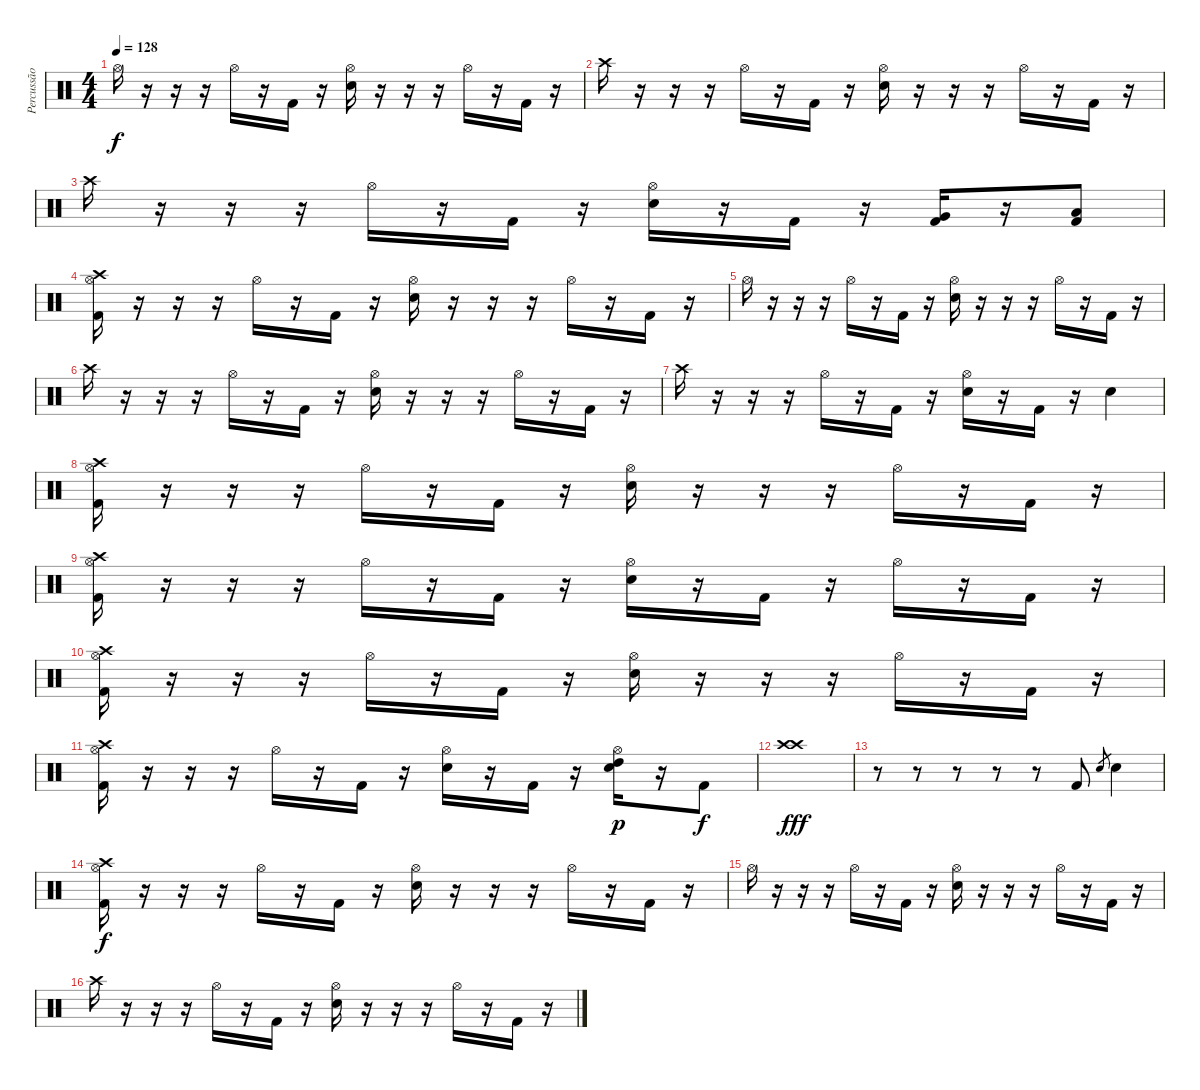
\track ("Percussão" "Percussão") {instrument percussion}
\staff {score}
\articulation defaults
\ts (4 4)
\tempo 128
\clef neutral
\ks c "Hi-Hat (open)".16{dy f}
r.16 r.16 r.16 "Hi-Hat (open)".16 r.16 "Kick (hit) 2".16 r.16 ("Hi-Hat (open)" "Electric Snare (hit)").16 r.16 r.16 r.16 "Hi-Hat (open)".16 r.16 "Kick (hit) 2".16 r.16 |
"Crash high (hit)".16 r.16 r.16 r.16 "Hi-Hat (open)".16 r.16 "Kick (hit) 2".16 r.16 ("Hi-Hat (open)" "Electric Snare (hit)").16 r.16 r.16 r.16 "Hi-Hat (open)".16 r.16 "Kick (hit) 2".16 r.16 |
"Crash high (hit)".16 r.16 r.16 r.16 "Hi-Hat (open)".16 r.16 "Kick (hit) 2".16 r.16 ("Hi-Hat (open)" "Electric Snare (hit)").16 r.16 "Kick (hit) 2".16 r.16 ("Very Low Tom (hit)" "Kick (hit) 2").16 r.16 ("Low Floor Tom (hit)" "Kick (hit) 2").8 |
("Crash high (hit)" "Hi-Hat (open)" "Kick (hit) 2").16 r.16 r.16 r.16 "Hi-Hat (open)".16 r.16 "Kick (hit) 2".16 r.16 ("Hi-Hat (open)" "Electric Snare (hit)").16 r.16 r.16 r.16 "Hi-Hat (open)".16 r.16 "Kick (hit) 2".16 r.16 |
"Hi-Hat (open)".16 r.16 r.16 r.16 "Hi-Hat (open)".16 r.16 "Kick (hit) 2".16 r.16 ("Hi-Hat (open)" "Electric Snare (hit)").16 r.16 r.16 r.16 "Hi-Hat (open)".16 r.16 "Kick (hit) 2".16 r.16 |
"Crash high (hit)".16 r.16 r.16 r.16 "Hi-Hat (open)".16 r.16 "Kick (hit) 2".16 r.16 ("Hi-Hat (open)" "Electric Snare (hit)").16 r.16 r.16 r.16 "Hi-Hat (open)".16 r.16 "Kick (hit) 2".16 r.16 |
"Crash high (hit)".16 r.16 r.16 r.16 "Hi-Hat (open)".16 r.16 "Kick (hit) 2".16 r.16 ("Hi-Hat (open)" "Electric Snare (hit)").16 r.16 "Kick (hit) 2".16 r.16 "Electric Snare (hit)".4 |
("Crash high (hit)" "Hi-Hat (open)" "Kick (hit) 2").16 r.16 r.16 r.16 "Hi-Hat (open)".16 r.16 "Kick (hit) 2".16 r.16 ("Hi-Hat (open)" "Electric Snare (hit)").16 r.16 r.16 r.16 "Hi-Hat (open)".16 r.16 "Kick (hit) 2".16 r.16 |
("Crash high (hit)" "Hi-Hat (open)" "Kick (hit) 2").16 r.16 r.16 r.16 "Hi-Hat (open)".16 r.16 "Kick (hit) 2".16 r.16 ("Hi-Hat (open)" "Electric Snare (hit)").16 r.16 "Kick (hit) 2".16 r.16 "Hi-Hat (open)".16 r.16 "Kick (hit) 2".16 r.16 |
("Crash high (hit)" "Hi-Hat (open)" "Kick (hit) 2").16 r.16 r.16 r.16 "Hi-Hat (open)".16 r.16 "Kick (hit) 2".16 r.16 ("Hi-Hat (open)" "Electric Snare (hit)").16 r.16 r.16 r.16 "Hi-Hat (open)".16 r.16 "Kick (hit) 2".16 r.16 |
("Crash high (hit)" "Hi-Hat (open)" "Kick (hit) 2").16 r.16 r.16 r.16 "Hi-Hat (open)".16 r.16 "Kick (hit) 2".16 r.16 ("Hi-Hat (open)" "Electric Snare (hit)").16 r.16 "Kick (hit) 2".16 r.16 ("Hi-Hat (open)" "Electric Snare (hit)" "High Tom (hit)").16{dy p} r.16 "Kick (hit) 2".8{dy f} |
("Crash high (hit)" "Crash high (hit)").1{dy fff} |
r.8 r.8 r.8 r.8 r.8 "Kick (hit) 2".8 "Electric Snare (hit)".8{gr} "Electric Snare (hit)".4 |
("Crash high (hit)" "Hi-Hat (open)" "Kick (hit) 2").16{dy f} r.16 r.16 r.16 "Hi-Hat (open)".16 r.16 "Kick (hit) 2".16 r.16 ("Hi-Hat (open)" "Electric Snare (hit)").16 r.16 r.16 r.16 "Hi-Hat (open)".16 r.16 "Kick (hit) 2".16 r.16 |
"Hi-Hat (open)".16 r.16 r.16 r.16 "Hi-Hat (open)".16 r.16 "Kick (hit) 2".16 r.16 ("Hi-Hat (open)" "Electric Snare (hit)").16 r.16 r.16 r.16 "Hi-Hat (open)".16 r.16 "Kick (hit) 2".16 r.16 |
"Crash high (hit)".16 r.16 r.16 r.16 "Hi-Hat (open)".16 r.16 "Kick (hit) 2".16 r.16 ("Hi-Hat (open)" "Electric Snare (hit)").16 r.16 r.16 r.16 "Hi-Hat (open)".16 r.16 "Kick (hit) 2".16 r.16
